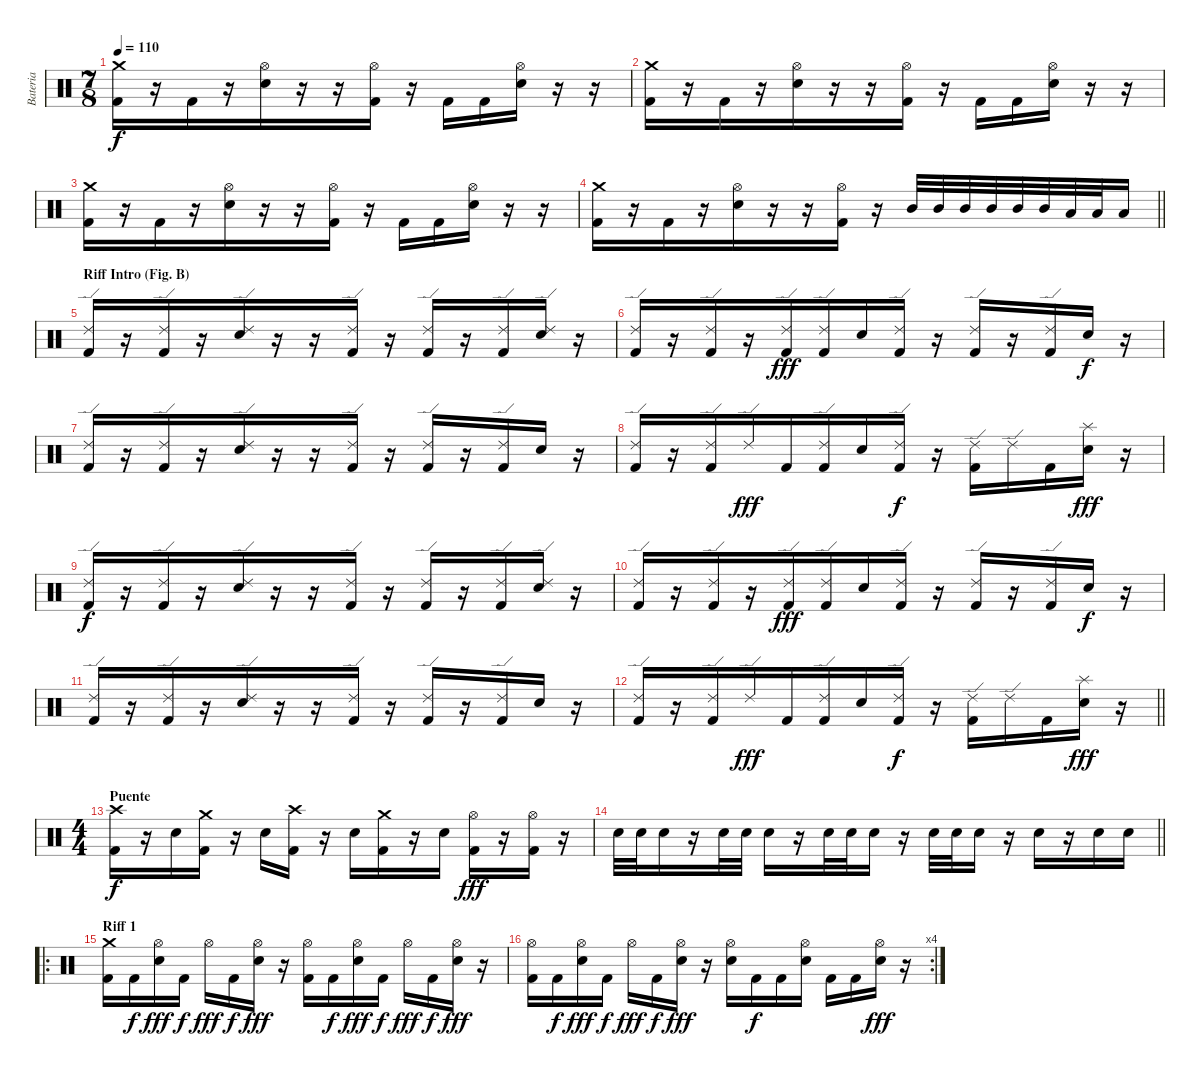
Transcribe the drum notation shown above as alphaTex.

\track ("Bateria " "Bateria ") {instrument percussion}
\staff {score}
\articulation defaults
\ts (7 8)
\tempo 110
\clef neutral
\ks c
("Crash medium (hit)" "Kick (hit) 2").16{dy f} r.16 "Kick (hit) 2".16 r.16 ("Hi-Hat (open)" "Electric Snare (hit)").16 r.16 r.16 ("Hi-Hat (open)" "Kick (hit) 2").16 r.16 "Kick (hit) 2".16 "Kick (hit) 2".16 ("Hi-Hat (open)" "Electric Snare (hit)").16 r.16 r.16 |
("Crash medium (hit)" "Kick (hit) 2").16 r.16 "Kick (hit) 2".16 r.16 ("Hi-Hat (open)" "Electric Snare (hit)").16 r.16 r.16 ("Hi-Hat (open)" "Kick (hit) 2").16 r.16 "Kick (hit) 2".16 "Kick (hit) 2".16 ("Hi-Hat (open)" "Electric Snare (hit)").16 r.16 r.16 |
("Crash medium (hit)" "Kick (hit) 2").16 r.16 "Kick (hit) 2".16 r.16 ("Hi-Hat (open)" "Electric Snare (hit)").16 r.16 r.16 ("Hi-Hat (open)" "Kick (hit) 2").16 r.16 "Kick (hit) 2".16 "Kick (hit) 2".16 ("Hi-Hat (open)" "Electric Snare (hit)").16 r.16 r.16 |
\barLineRight lightlight
("Crash medium (hit)" "Kick (hit) 2").16 r.16 "Kick (hit) 2".16 r.16 ("Hi-Hat (open)" "Electric Snare (hit)").16 r.16 r.16 ("Hi-Hat (open)" "Kick (hit) 2").16 r.16 "Mid Tom (hit)".32 "Mid Tom (hit)".32 "Mid Tom (hit)".32 "Mid Tom (hit)".32 "Mid Tom (hit)".32 "Mid Tom (hit)".32 "Low Tom (hit)".32 "Low Tom (hit)".32 "Low Tom (hit)".16 |
\section ("" "Riff Intro (Fig. B)")
("Ride (edge) 2" "Kick (hit) 2").16 r.16 ("Ride (edge) 2" "Kick (hit) 2").16 r.16 ("Ride (edge) 2" "Electric Snare (hit)").16 r.16 r.16 ("Ride (edge) 2" "Kick (hit) 2").16 r.16 ("Ride (edge) 2" "Kick (hit) 2").16 r.16 ("Ride (edge) 2" "Kick (hit) 2").16 ("Ride (edge) 2" "Electric Snare (hit)").16 r.16 |
("Ride (edge) 2" "Kick (hit) 2").16 r.16 ("Ride (edge) 2" "Kick (hit) 2").16 r.16 ("Ride (edge) 2" "Kick (hit) 2").16{dy fff} ("Ride (edge) 2" "Kick (hit) 2").16 "Electric Snare (hit)".16 ("Ride (edge) 2" "Kick (hit) 2").16 r.16 ("Ride (edge) 2" "Kick (hit) 2").16 r.16 ("Ride (edge) 2" "Kick (hit) 2").16 "Electric Snare (hit)".16{dy f} r.16 |
("Ride (edge) 2" "Kick (hit) 2").16 r.16 ("Ride (edge) 2" "Kick (hit) 2").16 r.16 ("Ride (edge) 2" "Electric Snare (hit)").16 r.16 r.16 ("Ride (edge) 2" "Kick (hit) 2").16 r.16 ("Ride (edge) 2" "Kick (hit) 2").16 r.16 ("Ride (edge) 2" "Kick (hit) 2").16 "Electric Snare (hit)".16 r.16 |
("Ride (edge) 2" "Kick (hit) 2").16 r.16 ("Ride (edge) 2" "Kick (hit) 2").16 "Ride (edge) 2".16{dy fff} "Kick (hit) 2".16 ("Ride (edge) 2" "Kick (hit) 2").16 "Electric Snare (hit)".16 ("Ride (edge) 2" "Kick (hit) 2").16{dy f} r.16 ("Ride (edge) 2" "Kick (hit) 2").16 "Ride (edge) 2".16 "Kick (hit) 2".16 ("Splash (hit)" "Electric Snare (hit)").16{dy fff} r.16 |
("Ride (edge) 2" "Kick (hit) 2").16{dy f} r.16 ("Ride (edge) 2" "Kick (hit) 2").16 r.16 ("Ride (edge) 2" "Electric Snare (hit)").16 r.16 r.16 ("Ride (edge) 2" "Kick (hit) 2").16 r.16 ("Ride (edge) 2" "Kick (hit) 2").16 r.16 ("Ride (edge) 2" "Kick (hit) 2").16 ("Ride (edge) 2" "Electric Snare (hit)").16 r.16 |
("Ride (edge) 2" "Kick (hit) 2").16 r.16 ("Ride (edge) 2" "Kick (hit) 2").16 r.16 ("Ride (edge) 2" "Kick (hit) 2").16{dy fff} ("Ride (edge) 2" "Kick (hit) 2").16 "Electric Snare (hit)".16 ("Ride (edge) 2" "Kick (hit) 2").16 r.16 ("Ride (edge) 2" "Kick (hit) 2").16 r.16 ("Ride (edge) 2" "Kick (hit) 2").16 "Electric Snare (hit)".16{dy f} r.16 |
("Ride (edge) 2" "Kick (hit) 2").16 r.16 ("Ride (edge) 2" "Kick (hit) 2").16 r.16 ("Ride (edge) 2" "Electric Snare (hit)").16 r.16 r.16 ("Ride (edge) 2" "Kick (hit) 2").16 r.16 ("Ride (edge) 2" "Kick (hit) 2").16 r.16 ("Ride (edge) 2" "Kick (hit) 2").16 "Electric Snare (hit)".16 r.16 |
\barLineRight lightlight
("Ride (edge) 2" "Kick (hit) 2").16 r.16 ("Ride (edge) 2" "Kick (hit) 2").16 "Ride (edge) 2".16{dy fff} "Kick (hit) 2".16 ("Ride (edge) 2" "Kick (hit) 2").16 "Electric Snare (hit)".16 ("Ride (edge) 2" "Kick (hit) 2").16{dy f} r.16 ("Ride (edge) 2" "Kick (hit) 2").16 "Ride (edge) 2".16 "Kick (hit) 2".16 ("Splash (hit)" "Electric Snare (hit)").16{dy fff} r.16 |
\ts (4 4)
\section ("" "Puente")
("Crash high (hit)" "Kick (hit) 2").16{dy f} r.16 "Electric Snare (hit)".16 ("Crash medium (hit)" "Kick (hit) 2").16 r.16 "Electric Snare (hit)".16 ("Crash high (hit)" "Kick (hit) 2").16 r.16 "Electric Snare (hit)".16 ("Crash medium (hit)" "Kick (hit) 2").16 r.16 "Electric Snare (hit)".16 ("Hi-Hat (open)" "Kick (hit) 2").16{dy fff} r.16 ("Hi-Hat (open)" "Kick (hit) 2").16 r.16 |
\barLineRight lightlight "Electric Snare (hit)".32 "Electric Snare (hit)".32 "Electric Snare (hit)".16
r.16 "Electric Snare (hit)".32 "Electric Snare (hit)".32 "Electric Snare (hit)".16 r.16 "Electric Snare (hit)".32 "Electric Snare (hit)".32 "Electric Snare (hit)".16 r.16 "Electric Snare (hit)".32 "Electric Snare (hit)".32 "Electric Snare (hit)".16 r.16 "Electric Snare (hit)".16 r.16 "Electric Snare (hit)".16 "Electric Snare (hit)".16 |
\ro
\section ("" "Riff 1")
("Crash medium (hit)" "Kick (hit) 2").16 "Kick (hit) 2".16{dy f} ("Hi-Hat (open)" "Electric Snare (hit)").16{dy fff} "Kick (hit) 2".16{dy f} "Hi-Hat (open)".16{dy fff} "Kick (hit) 2".16{dy f} ("Hi-Hat (open)" "Electric Snare (hit)").16{dy fff} r.16 ("Hi-Hat (open)" "Kick (hit) 2").16 "Kick (hit) 2".16{dy f} ("Hi-Hat (open)" "Electric Snare (hit)").16{dy fff} "Kick (hit) 2".16{dy f} "Hi-Hat (open)".16{dy fff} "Kick (hit) 2".16{dy f} ("Hi-Hat (open)" "Electric Snare (hit)").16{dy fff} r.16 |
\rc 4
("Hi-Hat (open)" "Kick (hit) 2").16 "Kick (hit) 2".16{dy f} ("Hi-Hat (open)" "Electric Snare (hit)").16{dy fff} "Kick (hit) 2".16{dy f} "Hi-Hat (open)".16{dy fff} "Kick (hit) 2".16{dy f} ("Hi-Hat (open)" "Electric Snare (hit)").16{dy fff} r.16 ("Hi-Hat (open)" "Electric Snare (hit)").16 "Kick (hit) 2".16{dy f} "Kick (hit) 2".16 ("Hi-Hat (open)" "Electric Snare (hit)").16 "Kick (hit) 2".16 "Kick (hit) 2".16 ("Hi-Hat (open)" "Electric Snare (hit)").16{dy fff} r.16
